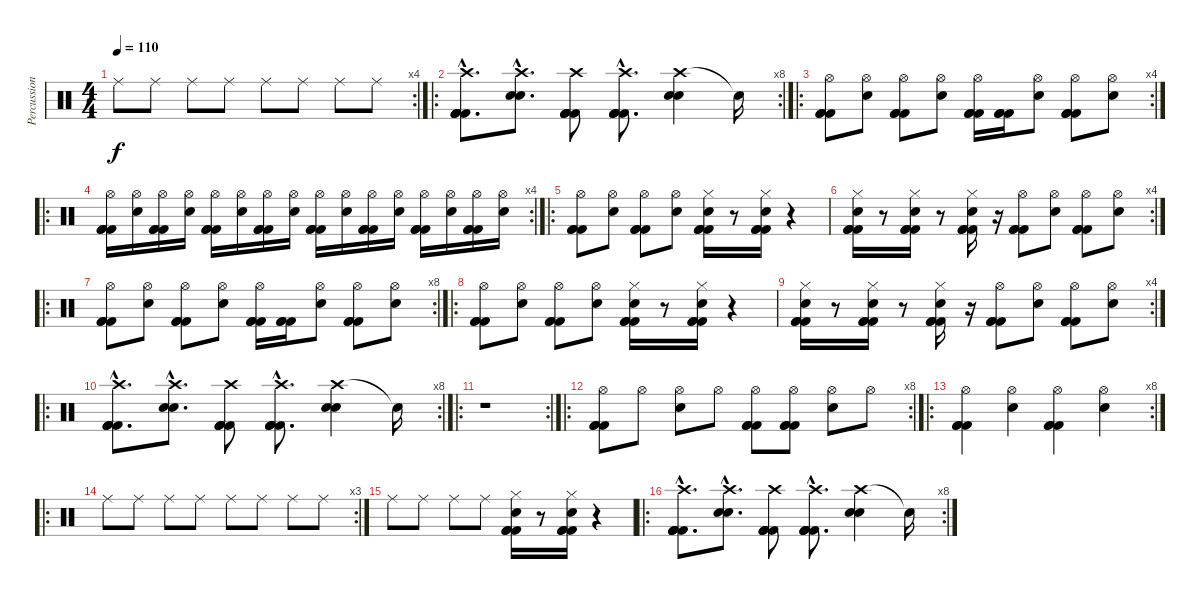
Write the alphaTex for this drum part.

\track ("Percussion" "Percussion") {instrument percussion}
\staff {score}
\articulation defaults
\rc 4
\ts (4 4)
\tempo 110
\clef neutral
\ks c "Ride (middle)".8{dy f} "Ride (middle)".8 "Ride (middle)".8 "Ride (middle)".8 "Ride (middle)".8 "Ride (middle)".8 "Ride (middle)".8 "Ride (middle)".8
|
\ro
\rc 8
("Crash high (hit)"{hac} "Kick (hit) 2"{hac} "Kick (hit) 2"{hac} "Kick (hit) 2"{hac} "Kick (hit) 2"{hac}).8{d} ("Crash high (hit)"{hac} "Snare (hit) 2"{hac} "Snare (hit) 2"{hac}).8{d} ("Crash high (hit)" "Kick (hit) 2" "Kick (hit) 2" "Kick (hit) 2" "Kick (hit) 2").8 ("Crash high (hit)"{hac} "Kick (hit) 2"{hac} "Kick (hit) 2"{hac} "Kick (hit) 2"{hac} "Kick (hit) 2"{hac}).8{d} ("Crash high (hit)" "Snare (hit) 2" "Snare (hit) 2").4 "Snare (hit)"{t}.16 |
\ro
\rc 4
("Hi-Hat (open)" "Kick (hit) 2" "Kick (hit) 2" "Kick (hit) 2").8 ("Hi-Hat (open)" "Snare (hit) 2").8 ("Hi-Hat (open)" "Kick (hit) 2" "Kick (hit) 2" "Kick (hit) 2").8 ("Hi-Hat (open)" "Snare (hit) 2").8 ("Hi-Hat (open)" "Kick (hit) 2" "Kick (hit) 2" "Kick (hit) 2").16 ("Kick (hit) 2" "Kick (hit) 2" "Kick (hit) 2").16 ("Hi-Hat (open)" "Snare (hit) 2").8 ("Hi-Hat (open)" "Kick (hit) 2" "Kick (hit) 2" "Kick (hit) 2").8 ("Hi-Hat (open)" "Snare (hit) 2").8 |
\ro
\rc 4
("Hi-Hat (open)" "Kick (hit) 2" "Kick (hit) 2" "Kick (hit) 2").16 ("Hi-Hat (open)" "Snare (hit) 2").16 ("Hi-Hat (open)" "Kick (hit) 2" "Kick (hit) 2" "Kick (hit) 2").16 ("Hi-Hat (open)" "Snare (hit) 2").16 ("Hi-Hat (open)" "Kick (hit) 2" "Kick (hit) 2" "Kick (hit) 2").16 ("Hi-Hat (open)" "Snare (hit) 2").16 ("Hi-Hat (open)" "Kick (hit) 2" "Kick (hit) 2" "Kick (hit) 2").16 ("Hi-Hat (open)" "Snare (hit) 2").16 ("Hi-Hat (open)" "Kick (hit) 2" "Kick (hit) 2" "Kick (hit) 2").16 ("Hi-Hat (open)" "Snare (hit) 2").16 ("Hi-Hat (open)" "Kick (hit) 2" "Kick (hit) 2" "Kick (hit) 2").16 ("Hi-Hat (open)" "Snare (hit) 2").16 ("Hi-Hat (open)" "Kick (hit) 2" "Kick (hit) 2" "Kick (hit) 2").16 ("Hi-Hat (open)" "Snare (hit) 2").16 ("Hi-Hat (open)" "Kick (hit) 2" "Kick (hit) 2" "Kick (hit) 2").16 ("Hi-Hat (open)" "Snare (hit) 2").16 |
\ro
("Hi-Hat (open)" "Kick (hit) 2" "Kick (hit) 2" "Kick (hit) 2").8 ("Hi-Hat (open)" "Snare (hit) 2").8 ("Hi-Hat (open)" "Kick (hit) 2" "Kick (hit) 2" "Kick (hit) 2").8 ("Hi-Hat (open)" "Snare (hit) 2").8 ("Hi-Hat (closed)" "Snare (hit) 2" "Kick (hit) 2" "Kick (hit) 2" "Kick (hit) 2").16 r.8 ("Hi-Hat (closed)" "Snare (hit) 2" "Kick (hit) 2" "Kick (hit) 2" "Kick (hit) 2").16 r.4 |
\rc 4
("Hi-Hat (closed)" "Snare (hit) 2" "Kick (hit) 2" "Kick (hit) 2" "Kick (hit) 2").16 r.8 ("Hi-Hat (closed)" "Snare (hit) 2" "Kick (hit) 2" "Kick (hit) 2" "Kick (hit) 2").16 r.8 ("Hi-Hat (closed)" "Snare (hit) 2" "Kick (hit) 2" "Kick (hit) 2" "Kick (hit) 2").16 r.16 ("Hi-Hat (open)" "Kick (hit) 2" "Kick (hit) 2" "Kick (hit) 2").8 ("Hi-Hat (open)" "Snare (hit) 2").8 ("Hi-Hat (open)" "Kick (hit) 2" "Kick (hit) 2" "Kick (hit) 2").8 ("Hi-Hat (open)" "Snare (hit) 2").8 |
\ro
\rc 8
("Hi-Hat (open)" "Kick (hit) 2" "Kick (hit) 2" "Kick (hit) 2").8 ("Hi-Hat (open)" "Snare (hit) 2").8 ("Hi-Hat (open)" "Kick (hit) 2" "Kick (hit) 2" "Kick (hit) 2").8 ("Hi-Hat (open)" "Snare (hit) 2").8 ("Hi-Hat (open)" "Kick (hit) 2" "Kick (hit) 2" "Kick (hit) 2").16 ("Kick (hit) 2" "Kick (hit) 2" "Kick (hit) 2").16 ("Hi-Hat (open)" "Snare (hit) 2").8 ("Hi-Hat (open)" "Kick (hit) 2" "Kick (hit) 2" "Kick (hit) 2").8 ("Hi-Hat (open)" "Snare (hit) 2").8 |
\ro
("Hi-Hat (open)" "Kick (hit) 2" "Kick (hit) 2" "Kick (hit) 2").8 ("Hi-Hat (open)" "Snare (hit) 2").8 ("Hi-Hat (open)" "Kick (hit) 2" "Kick (hit) 2" "Kick (hit) 2").8 ("Hi-Hat (open)" "Snare (hit) 2").8 ("Hi-Hat (closed)" "Snare (hit) 2" "Kick (hit) 2" "Kick (hit) 2" "Kick (hit) 2").16 r.8 ("Hi-Hat (closed)" "Snare (hit) 2" "Kick (hit) 2" "Kick (hit) 2" "Kick (hit) 2").16 r.4 |
\rc 4
("Hi-Hat (closed)" "Snare (hit) 2" "Kick (hit) 2" "Kick (hit) 2" "Kick (hit) 2").16 r.8 ("Hi-Hat (closed)" "Snare (hit) 2" "Kick (hit) 2" "Kick (hit) 2" "Kick (hit) 2").16 r.8 ("Hi-Hat (closed)" "Snare (hit) 2" "Kick (hit) 2" "Kick (hit) 2" "Kick (hit) 2").16 r.16 ("Hi-Hat (open)" "Kick (hit) 2" "Kick (hit) 2" "Kick (hit) 2").8 ("Hi-Hat (open)" "Snare (hit) 2").8 ("Hi-Hat (open)" "Kick (hit) 2" "Kick (hit) 2" "Kick (hit) 2").8 ("Hi-Hat (open)" "Snare (hit) 2").8 |
\ro
\rc 8
("Crash high (hit)"{hac} "Kick (hit) 2"{hac} "Kick (hit) 2"{hac} "Kick (hit) 2"{hac} "Kick (hit) 2"{hac}).8{d} ("Crash high (hit)"{hac} "Snare (hit) 2"{hac} "Snare (hit) 2"{hac}).8{d} ("Crash high (hit)" "Kick (hit) 2" "Kick (hit) 2" "Kick (hit) 2" "Kick (hit) 2").8 ("Crash high (hit)"{hac} "Kick (hit) 2"{hac} "Kick (hit) 2"{hac} "Kick (hit) 2"{hac} "Kick (hit) 2"{hac}).8{d} ("Crash high (hit)" "Snare (hit) 2" "Snare (hit) 2").4 "Snare (hit)"{t}.16 |
\ro
\rc 2
r.1 |
\ro
\rc 8
("Hi-Hat (open)" "Kick (hit) 2" "Kick (hit) 2" "Kick (hit) 2").8 "Hi-Hat (open)".8 ("Hi-Hat (open)" "Snare (hit) 2").8 "Hi-Hat (open)".8 ("Hi-Hat (open)" "Kick (hit) 2" "Kick (hit) 2" "Kick (hit) 2").8 ("Hi-Hat (open)" "Kick (hit) 2" "Kick (hit) 2" "Kick (hit) 2").8 ("Hi-Hat (open)" "Snare (hit) 2").8 "Hi-Hat (open)".8 |
\ro
\rc 8
("Hi-Hat (open)" "Kick (hit) 2" "Kick (hit) 2" "Kick (hit) 2").4 ("Hi-Hat (open)" "Snare (hit) 2").4 ("Hi-Hat (open)" "Kick (hit) 2" "Kick (hit) 2" "Kick (hit) 2").4 ("Hi-Hat (open)" "Snare (hit) 2").4 |
\ro
\rc 3 "Ride (middle)".8 "Ride (middle)".8 "Ride (middle)".8 "Ride (middle)".8 "Ride (middle)".8 "Ride (middle)".8 "Ride (middle)".8 "Ride (middle)".8
|
"Ride (middle)".8 "Ride (middle)".8 "Ride (middle)".8 "Ride (middle)".8 ("Hi-Hat (closed)" "Snare (hit) 2" "Kick (hit) 2" "Kick (hit) 2" "Kick (hit) 2").16 r.8 ("Hi-Hat (closed)" "Snare (hit) 2" "Kick (hit) 2" "Kick (hit) 2" "Kick (hit) 2").16 r.4 |
\ro
\rc 8
("Crash high (hit)"{hac} "Kick (hit) 2"{hac} "Kick (hit) 2"{hac} "Kick (hit) 2"{hac} "Kick (hit) 2"{hac}).8{d} ("Crash high (hit)"{hac} "Snare (hit) 2"{hac} "Snare (hit) 2"{hac}).8{d} ("Crash high (hit)" "Kick (hit) 2" "Kick (hit) 2" "Kick (hit) 2" "Kick (hit) 2").8 ("Crash high (hit)"{hac} "Kick (hit) 2"{hac} "Kick (hit) 2"{hac} "Kick (hit) 2"{hac} "Kick (hit) 2"{hac}).8{d} ("Crash high (hit)" "Snare (hit) 2" "Snare (hit) 2").4 "Snare (hit)"{t}.16
